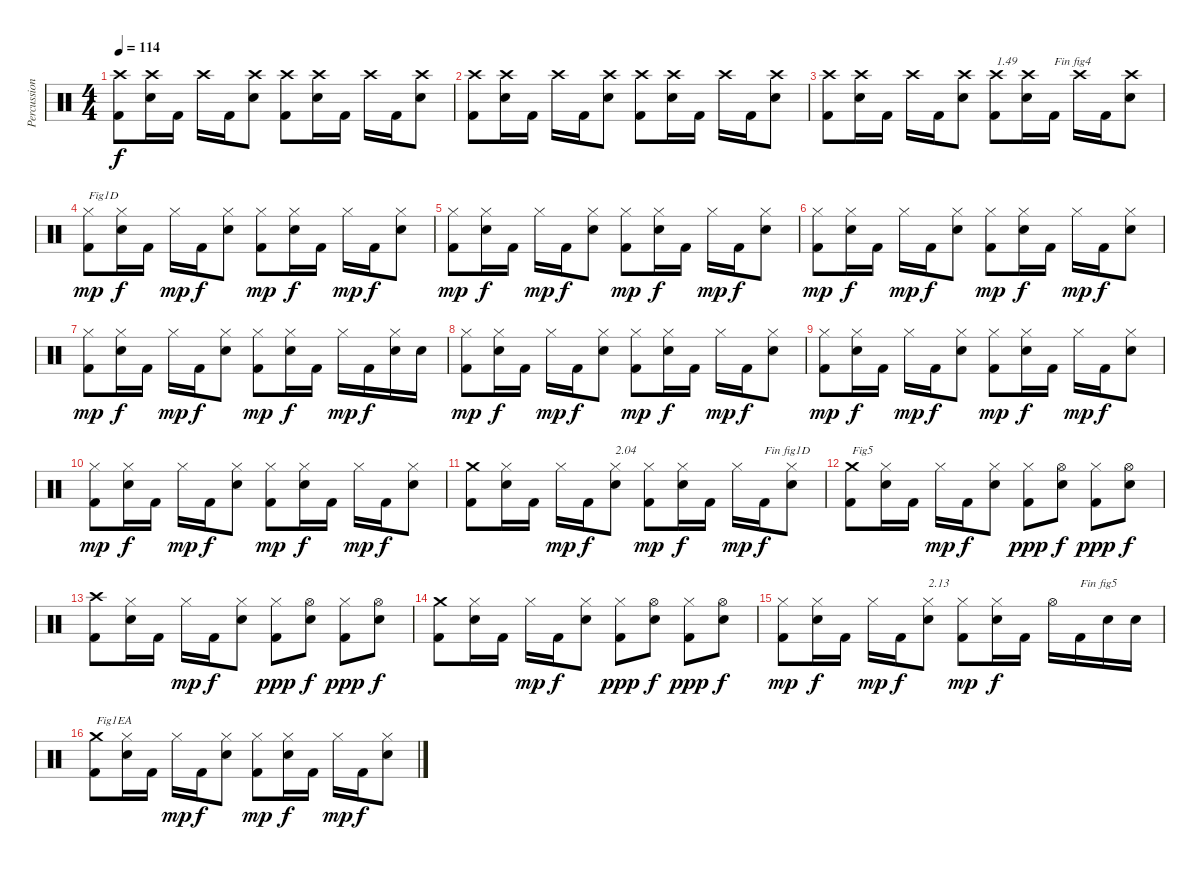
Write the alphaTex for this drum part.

\track ("Percussions" "Percussion") {instrument percussion}
\staff {score}
\articulation defaults
\ts (4 4)
\tempo 114
\clef neutral
\ks c
("Kick (hit) 2" "Crash high (hit)").8{dy f} ("Electric Snare (hit)" "Crash high (hit)").16 "Kick (hit) 2".16 "Crash high (hit)".16 "Kick (hit) 2".16 ("Electric Snare (hit)" "Crash high (hit)").8 ("Kick (hit) 2" "Crash high (hit)").8 ("Electric Snare (hit)" "Crash high (hit)").16 "Kick (hit) 2".16 "Crash high (hit)".16 "Kick (hit) 2".16 ("Electric Snare (hit)" "Crash high (hit)").8 |
("Kick (hit) 2" "Crash high (hit)").8 ("Electric Snare (hit)" "Crash high (hit)").16 "Kick (hit) 2".16 "Crash high (hit)".16 "Kick (hit) 2".16 ("Electric Snare (hit)" "Crash high (hit)").8 ("Kick (hit) 2" "Crash high (hit)").8 ("Electric Snare (hit)" "Crash high (hit)").16 "Kick (hit) 2".16 "Crash high (hit)".16 "Kick (hit) 2".16 ("Electric Snare (hit)" "Crash high (hit)").8 |
("Kick (hit) 2" "Crash high (hit)").8 ("Electric Snare (hit)" "Crash high (hit)").16 "Kick (hit) 2".16 "Crash high (hit)".16 "Kick (hit) 2".16 ("Electric Snare (hit)" "Crash high (hit)").8 ("Kick (hit) 2" "Crash high (hit)").8{txt "1.49"} ("Electric Snare (hit)" "Crash high (hit)").16 "Kick (hit) 2".16{txt "Fin fig4"} "Crash high (hit)".16 "Kick (hit) 2".16 ("Electric Snare (hit)" "Crash high (hit)").8 |
("Kick (hit) 2" "Hi-Hat (closed)").8{txt "Fig1D" dy mp} ("Electric Snare (hit)" "Hi-Hat (closed)").16{dy f} "Kick (hit) 2".16 "Hi-Hat (closed)".16{dy mp} "Kick (hit) 2".16{dy f} ("Electric Snare (hit)" "Hi-Hat (closed)").8 ("Kick (hit) 2" "Hi-Hat (closed)").8{dy mp} ("Electric Snare (hit)" "Hi-Hat (closed)").16{dy f} "Kick (hit) 2".16 "Hi-Hat (closed)".16{dy mp} "Kick (hit) 2".16{dy f} ("Electric Snare (hit)" "Hi-Hat (closed)").8 |
("Kick (hit) 2" "Hi-Hat (closed)").8{dy mp} ("Electric Snare (hit)" "Hi-Hat (closed)").16{dy f} "Kick (hit) 2".16 "Hi-Hat (closed)".16{dy mp} "Kick (hit) 2".16{dy f} ("Electric Snare (hit)" "Hi-Hat (closed)").8 ("Kick (hit) 2" "Hi-Hat (closed)").8{dy mp} ("Electric Snare (hit)" "Hi-Hat (closed)").16{dy f} "Kick (hit) 2".16 "Hi-Hat (closed)".16{dy mp} "Kick (hit) 2".16{dy f} ("Electric Snare (hit)" "Hi-Hat (closed)").8 |
("Kick (hit) 2" "Hi-Hat (closed)").8{dy mp} ("Electric Snare (hit)" "Hi-Hat (closed)").16{dy f} "Kick (hit) 2".16 "Hi-Hat (closed)".16{dy mp} "Kick (hit) 2".16{dy f} ("Electric Snare (hit)" "Hi-Hat (closed)").8 ("Kick (hit) 2" "Hi-Hat (closed)").8{dy mp} ("Electric Snare (hit)" "Hi-Hat (closed)").16{dy f} "Kick (hit) 2".16 "Hi-Hat (closed)".16{dy mp} "Kick (hit) 2".16{dy f} ("Electric Snare (hit)" "Hi-Hat (closed)").8 |
("Kick (hit) 2" "Hi-Hat (closed)").8{dy mp} ("Electric Snare (hit)" "Hi-Hat (closed)").16{dy f} "Kick (hit) 2".16 "Hi-Hat (closed)".16{dy mp} "Kick (hit) 2".16{dy f} ("Electric Snare (hit)" "Hi-Hat (closed)").8 ("Kick (hit) 2" "Hi-Hat (closed)").8{dy mp} ("Electric Snare (hit)" "Hi-Hat (closed)").16{dy f} "Kick (hit) 2".16 "Hi-Hat (closed)".16{dy mp} "Kick (hit) 2".16{dy f} ("Electric Snare (hit)" "Hi-Hat (closed)").16 "Electric Snare (hit)".16 |
("Kick (hit) 2" "Hi-Hat (closed)").8{dy mp} ("Electric Snare (hit)" "Hi-Hat (closed)").16{dy f} "Kick (hit) 2".16 "Hi-Hat (closed)".16{dy mp} "Kick (hit) 2".16{dy f} ("Electric Snare (hit)" "Hi-Hat (closed)").8 ("Kick (hit) 2" "Hi-Hat (closed)").8{dy mp} ("Electric Snare (hit)" "Hi-Hat (closed)").16{dy f} "Kick (hit) 2".16 "Hi-Hat (closed)".16{dy mp} "Kick (hit) 2".16{dy f} ("Electric Snare (hit)" "Hi-Hat (closed)").8 |
("Kick (hit) 2" "Hi-Hat (closed)").8{dy mp} ("Electric Snare (hit)" "Hi-Hat (closed)").16{dy f} "Kick (hit) 2".16 "Hi-Hat (closed)".16{dy mp} "Kick (hit) 2".16{dy f} ("Electric Snare (hit)" "Hi-Hat (closed)").8 ("Kick (hit) 2" "Hi-Hat (closed)").8{dy mp} ("Electric Snare (hit)" "Hi-Hat (closed)").16{dy f} "Kick (hit) 2".16 "Hi-Hat (closed)".16{dy mp} "Kick (hit) 2".16{dy f} ("Electric Snare (hit)" "Hi-Hat (closed)").8 |
("Kick (hit) 2" "Hi-Hat (closed)").8{dy mp} ("Electric Snare (hit)" "Hi-Hat (closed)").16{dy f} "Kick (hit) 2".16 "Hi-Hat (closed)".16{dy mp} "Kick (hit) 2".16{dy f} ("Electric Snare (hit)" "Hi-Hat (closed)").8 ("Kick (hit) 2" "Hi-Hat (closed)").8{dy mp} ("Electric Snare (hit)" "Hi-Hat (closed)").16{dy f} "Kick (hit) 2".16 "Hi-Hat (closed)".16{dy mp} "Kick (hit) 2".16{dy f} ("Electric Snare (hit)" "Hi-Hat (closed)").8 |
("Kick (hit) 2" "Crash medium (hit)").8 ("Electric Snare (hit)" "Hi-Hat (closed)").16 "Kick (hit) 2".16 "Hi-Hat (closed)".16{dy mp} "Kick (hit) 2".16{dy f} ("Electric Snare (hit)" "Hi-Hat (closed)").8{txt "2.04"} ("Kick (hit) 2" "Hi-Hat (closed)").8{dy mp} ("Electric Snare (hit)" "Hi-Hat (closed)").16{dy f} "Kick (hit) 2".16 "Hi-Hat (closed)".16{dy mp} "Kick (hit) 2".16{txt "Fin fig1D" dy f} ("Electric Snare (hit)" "Hi-Hat (closed)").8 |
("Kick (hit) 2" "Crash medium (hit)").8{txt "Fig5"} ("Electric Snare (hit)" "Hi-Hat (closed)").16 "Kick (hit) 2".16 "Hi-Hat (closed)".16{dy mp} "Kick (hit) 2".16{dy f} ("Electric Snare (hit)" "Hi-Hat (closed)").8 ("Kick (hit) 2" "Hi-Hat (closed)").8{dy ppp} ("Electric Snare (hit)" "Hi-Hat (open)").8{dy f} ("Kick (hit) 2" "Hi-Hat (closed)").8{dy ppp} ("Electric Snare (hit)" "Hi-Hat (open)").8{dy f} |
("Kick (hit) 2" "Crash high (hit)").8 ("Electric Snare (hit)" "Hi-Hat (closed)").16 "Kick (hit) 2".16 "Hi-Hat (closed)".16{dy mp} "Kick (hit) 2".16{dy f} ("Electric Snare (hit)" "Hi-Hat (closed)").8 ("Kick (hit) 2" "Hi-Hat (closed)").8{dy ppp} ("Electric Snare (hit)" "Hi-Hat (open)").8{dy f} ("Kick (hit) 2" "Hi-Hat (closed)").8{dy ppp} ("Electric Snare (hit)" "Hi-Hat (open)").8{dy f} |
("Kick (hit) 2" "Crash medium (hit)").8 ("Electric Snare (hit)" "Hi-Hat (closed)").16 "Kick (hit) 2".16 "Hi-Hat (closed)".16{dy mp} "Kick (hit) 2".16{dy f} ("Electric Snare (hit)" "Hi-Hat (closed)").8 ("Kick (hit) 2" "Hi-Hat (closed)").8{dy ppp} ("Electric Snare (hit)" "Hi-Hat (open)").8{dy f} ("Kick (hit) 2" "Hi-Hat (closed)").8{dy ppp} ("Electric Snare (hit)" "Hi-Hat (open)").8{dy f} |
("Kick (hit) 2" "Hi-Hat (closed)").8{dy mp} ("Electric Snare (hit)" "Hi-Hat (closed)").16{dy f} "Kick (hit) 2".16 "Hi-Hat (closed)".16{dy mp} "Kick (hit) 2".16{dy f} ("Electric Snare (hit)" "Hi-Hat (closed)").8{txt "2.13"} ("Kick (hit) 2" "Hi-Hat (closed)").8{dy mp} ("Electric Snare (hit)" "Hi-Hat (closed)").16{dy f} "Kick (hit) 2".16 "Hi-Hat (open)".16 "Kick (hit) 2".16{txt "Fin fig5"} "Electric Snare (hit)".16 "Electric Snare (hit)".16 |
("Kick (hit) 2" "Crash medium (hit)").8{txt "Fig1EA"} ("Electric Snare (hit)" "Hi-Hat (closed)").16 "Kick (hit) 2".16 "Hi-Hat (closed)".16{dy mp} "Kick (hit) 2".16{dy f} ("Electric Snare (hit)" "Hi-Hat (closed)").8 ("Kick (hit) 2" "Hi-Hat (closed)").8{dy mp} ("Electric Snare (hit)" "Hi-Hat (closed)").16{dy f} "Kick (hit) 2".16 "Hi-Hat (closed)".16{dy mp} "Kick (hit) 2".16{dy f} ("Electric Snare (hit)" "Hi-Hat (closed)").8
